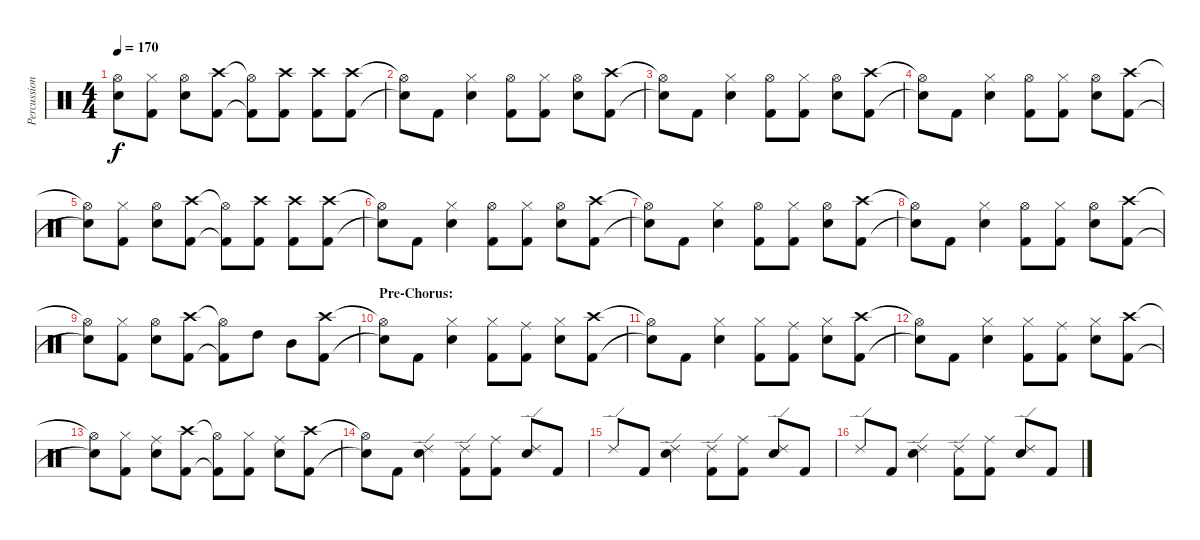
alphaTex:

\track ("Percussion" "Percussion") {instrument percussion}
\staff {score}
\articulation defaults
\ts (4 4)
\tempo 170
\clef neutral
\ks c
("Hi-Hat (open)"{t} "Snare (hit)"{t}).8{dy f} ("Hi-Hat (closed)" "Kick (hit) 2").8 ("Hi-Hat (open)" "Snare (hit) 2").8 ("Crash high (hit)" "Kick (hit) 2").8 ("Hi-Hat (open)"{t} "Kick (hit) 2"{t}).8 ("Crash high (hit)" "Kick (hit) 2").8 ("Crash high (hit)" "Kick (hit) 2").8 ("Crash high (hit)" "Kick (hit) 2").8 |
("Hi-Hat (open)"{t} "Snare (hit)"{t}).8 "Kick (hit) 2".8 ("Hi-Hat (closed)" "Snare (hit) 2").4 ("Hi-Hat (open)" "Kick (hit) 2").8 ("Hi-Hat (closed)" "Kick (hit) 2").8 ("Hi-Hat (open)" "Snare (hit) 2").8 ("Crash high (hit)" "Kick (hit) 2").8 |
("Hi-Hat (open)"{t} "Snare (hit)"{t}).8 "Kick (hit) 2".8 ("Hi-Hat (closed)" "Snare (hit) 2").4 ("Hi-Hat (open)" "Kick (hit) 2").8 ("Hi-Hat (closed)" "Kick (hit) 2").8 ("Hi-Hat (open)" "Snare (hit) 2").8 ("Crash high (hit)" "Kick (hit) 2").8 |
("Hi-Hat (open)"{t} "Snare (hit)"{t}).8 "Kick (hit) 2".8 ("Hi-Hat (closed)" "Snare (hit) 2").4 ("Hi-Hat (open)" "Kick (hit) 2").8 ("Hi-Hat (closed)" "Kick (hit) 2").8 ("Hi-Hat (open)" "Snare (hit) 2").8 ("Crash high (hit)" "Kick (hit) 2").8 |
("Hi-Hat (open)"{t} "Snare (hit)"{t}).8 ("Hi-Hat (closed)" "Kick (hit) 2").8 ("Hi-Hat (open)" "Snare (hit) 2").8 ("Crash high (hit)" "Kick (hit) 2").8 ("Hi-Hat (open)"{t} "Kick (hit) 2"{t}).8 ("Crash high (hit)" "Kick (hit) 2").8 ("Crash high (hit)" "Kick (hit) 2").8 ("Crash high (hit)" "Kick (hit) 2").8 |
("Hi-Hat (open)"{t} "Snare (hit)"{t}).8 "Kick (hit) 2".8 ("Hi-Hat (closed)" "Snare (hit) 2").4 ("Hi-Hat (open)" "Kick (hit) 2").8 ("Hi-Hat (closed)" "Kick (hit) 2").8 ("Hi-Hat (open)" "Snare (hit) 2").8 ("Crash high (hit)" "Kick (hit) 2").8 |
("Hi-Hat (open)"{t} "Snare (hit)"{t}).8 "Kick (hit) 2".8 ("Hi-Hat (closed)" "Snare (hit) 2").4 ("Hi-Hat (open)" "Kick (hit) 2").8 ("Hi-Hat (closed)" "Kick (hit) 2").8 ("Hi-Hat (open)" "Snare (hit) 2").8 ("Crash high (hit)" "Kick (hit) 2").8 |
("Hi-Hat (open)"{t} "Snare (hit)"{t}).8 "Kick (hit) 2".8 ("Hi-Hat (closed)" "Snare (hit) 2").4 ("Hi-Hat (open)" "Kick (hit) 2").8 ("Hi-Hat (closed)" "Kick (hit) 2").8 ("Hi-Hat (open)" "Snare (hit) 2").8 ("Crash high (hit)" "Kick (hit) 2").8 |
("Hi-Hat (open)"{t} "Snare (hit)"{t}).8 ("Hi-Hat (closed)" "Kick (hit) 2").8 ("Hi-Hat (open)" "Snare (hit) 2").8 ("Crash high (hit)" "Kick (hit) 2").8 ("Hi-Hat (open)"{t} "Kick (hit) 2"{t}).8 "High Tom (hit)".8 "Mid Tom (hit)".8 ("Crash high (hit)" "Kick (hit) 2").8 |
\section ("" "Pre-Chorus:")
("Hi-Hat (open)"{t} "Snare (hit)"{t}).8 "Kick (hit) 2".8 ("Hi-Hat (closed)" "Snare (hit) 2").4 ("Hi-Hat (closed)" "Kick (hit) 2").8 ("Ride (middle)" "Kick (hit) 2").8 ("Hi-Hat (closed)" "Snare (hit) 2").8 ("Crash high (hit)" "Kick (hit) 2").8 |
("Hi-Hat (open)"{t} "Snare (hit)"{t}).8 "Kick (hit) 2".8 ("Hi-Hat (closed)" "Snare (hit) 2").4 ("Hi-Hat (closed)" "Kick (hit) 2").8 ("Ride (middle)" "Kick (hit) 2").8 ("Hi-Hat (closed)" "Snare (hit) 2").8 ("Crash high (hit)" "Kick (hit) 2").8 |
("Hi-Hat (open)"{t} "Snare (hit)"{t}).8 "Kick (hit) 2".8 ("Hi-Hat (closed)" "Snare (hit) 2").4 ("Hi-Hat (closed)" "Kick (hit) 2").8 ("Ride (middle)" "Kick (hit) 2").8 ("Hi-Hat (closed)" "Snare (hit) 2").8 ("Crash high (hit)" "Kick (hit) 2").8 |
("Hi-Hat (open)"{t} "Snare (hit)"{t}).8 ("Hi-Hat (closed)" "Kick (hit) 2").8 ("Ride (middle)" "Snare (hit) 2").8 ("Crash high (hit)" "Kick (hit) 2").8 ("Hi-Hat (open)"{t} "Kick (hit) 2"{t}).8 ("Hi-Hat (closed)" "Kick (hit) 2").8 ("Ride (middle)" "Snare (hit) 2").8 ("Crash high (hit)" "Kick (hit) 2").8 |
("Hi-Hat (open)"{t} "Snare (hit)"{t}).8 "Kick (hit) 2".8 ("Ride (edge) 2" "Snare (hit) 2").4 ("Ride (edge) 2" "Kick (hit) 2").8 ("Ride (middle)" "Kick (hit) 2").8 ("Ride (edge) 2" "Snare (hit) 2").8 "Kick (hit) 2".8 |
"Ride (edge) 2".8 "Kick (hit) 2".8 ("Ride (edge) 2" "Snare (hit) 2").4 ("Ride (edge) 2" "Kick (hit) 2").8 ("Ride (middle)" "Kick (hit) 2").8 ("Ride (edge) 2" "Snare (hit) 2").8 "Kick (hit) 2".8 |
"Ride (edge) 2".8 "Kick (hit) 2".8 ("Ride (edge) 2" "Snare (hit) 2").4 ("Ride (edge) 2" "Kick (hit) 2").8 ("Ride (middle)" "Kick (hit) 2").8 ("Ride (edge) 2" "Snare (hit) 2").8 "Kick (hit) 2".8
